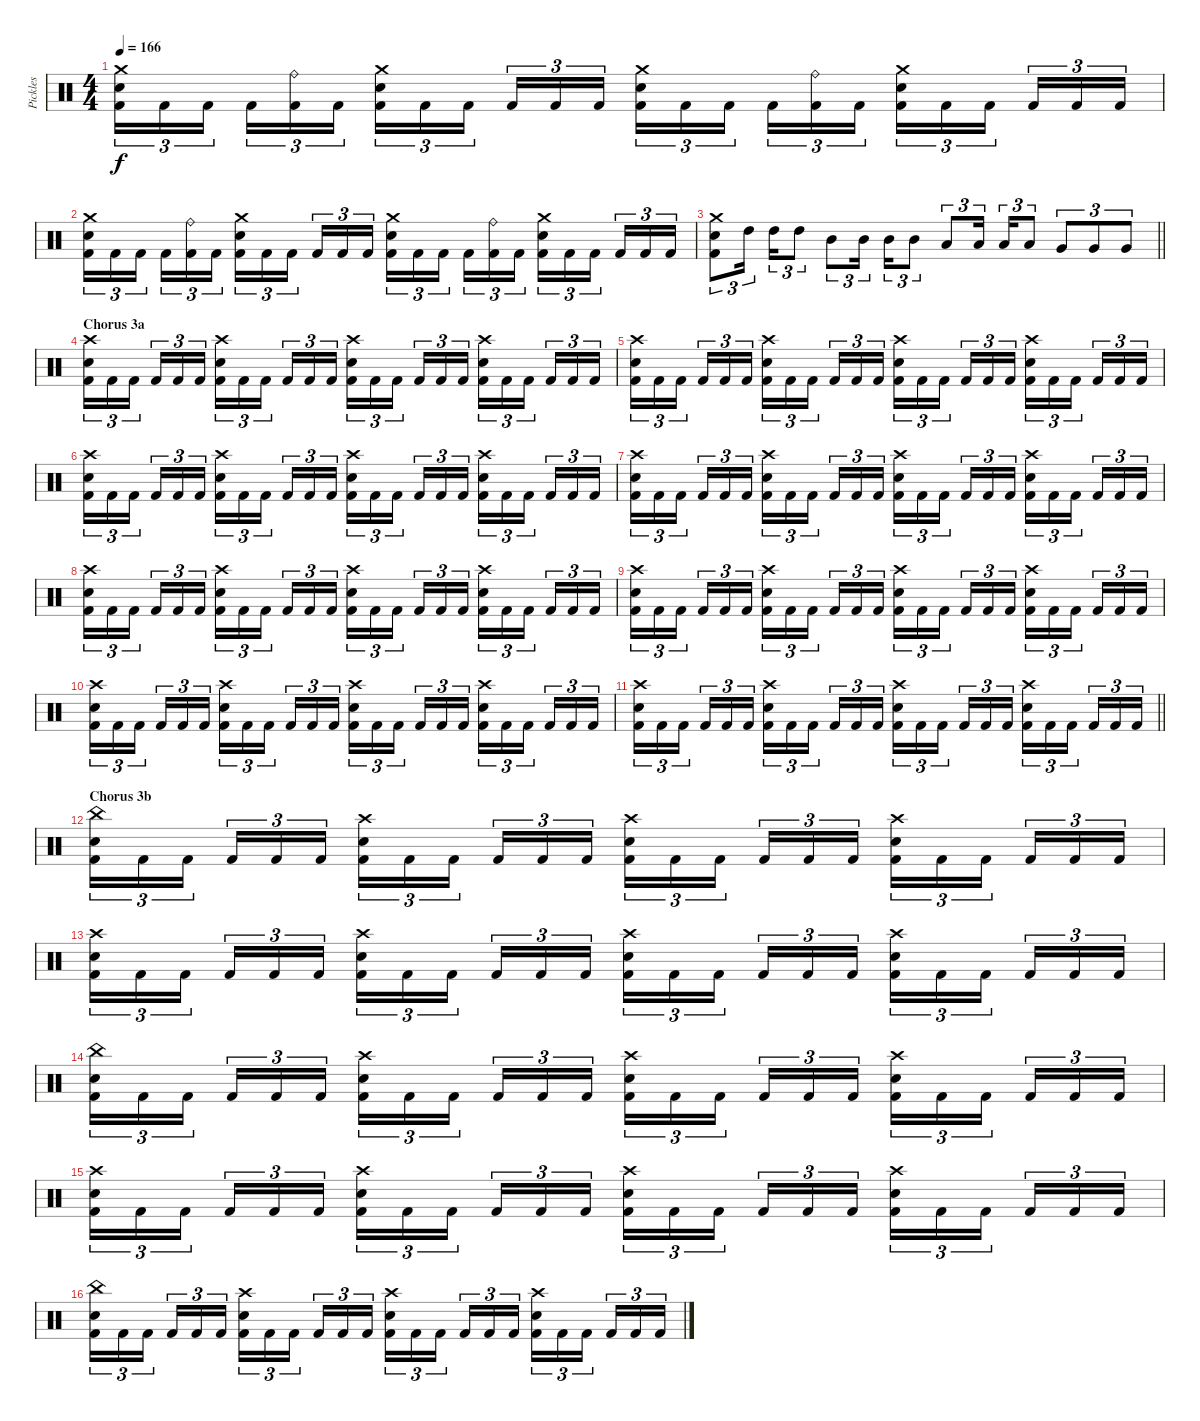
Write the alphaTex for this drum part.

\track ("Pickles" "Pickles") {instrument percussion}
\staff {score}
\articulation defaults
\ts (4 4)
\tempo 166
\clef neutral
\ks c
("Crash medium (hit)" "Snare (hit) 2" "Kick (hit) 2").16{tu (3 2) dy f} "Kick (hit) 2".16{tu (3 2)} "Kick (hit) 2".16{tu (3 2) beam splitsecondary} "Kick (hit) 2".16{tu (3 2)} ("Ride (bell)" "Kick (hit) 2").16{tu (3 2)} "Kick (hit) 2".16{tu (3 2)} ("Crash medium (hit)" "Snare (hit) 2" "Kick (hit) 2").16{tu (3 2)} "Kick (hit) 2".16{tu (3 2)} "Kick (hit) 2".16{tu (3 2) beam splitsecondary} "Kick (hit) 2".16{tu (3 2)} "Kick (hit) 2".16{tu (3 2)} "Kick (hit) 2".16{tu (3 2)} ("Crash medium (hit)" "Snare (hit) 2" "Kick (hit) 2").16{tu (3 2)} "Kick (hit) 2".16{tu (3 2)} "Kick (hit) 2".16{tu (3 2) beam splitsecondary} "Kick (hit) 2".16{tu (3 2)} ("Ride (bell)" "Kick (hit) 2").16{tu (3 2)} "Kick (hit) 2".16{tu (3 2)} ("Crash medium (hit)" "Snare (hit) 2" "Kick (hit) 2").16{tu (3 2)} "Kick (hit) 2".16{tu (3 2)} "Kick (hit) 2".16{tu (3 2) beam splitsecondary} "Kick (hit) 2".16{tu (3 2)} "Kick (hit) 2".16{tu (3 2)} "Kick (hit) 2".16{tu (3 2)} |
("Crash medium (hit)" "Snare (hit) 2" "Kick (hit) 2").16{tu (3 2)} "Kick (hit) 2".16{tu (3 2)} "Kick (hit) 2".16{tu (3 2) beam splitsecondary} "Kick (hit) 2".16{tu (3 2)} ("Ride (bell)" "Kick (hit) 2").16{tu (3 2)} "Kick (hit) 2".16{tu (3 2)} ("Crash medium (hit)" "Snare (hit) 2" "Kick (hit) 2").16{tu (3 2)} "Kick (hit) 2".16{tu (3 2)} "Kick (hit) 2".16{tu (3 2) beam splitsecondary} "Kick (hit) 2".16{tu (3 2)} "Kick (hit) 2".16{tu (3 2)} "Kick (hit) 2".16{tu (3 2)} ("Crash medium (hit)" "Snare (hit) 2" "Kick (hit) 2").16{tu (3 2)} "Kick (hit) 2".16{tu (3 2)} "Kick (hit) 2".16{tu (3 2) beam splitsecondary} "Kick (hit) 2".16{tu (3 2)} ("Ride (bell)" "Kick (hit) 2").16{tu (3 2)} "Kick (hit) 2".16{tu (3 2)} ("Crash medium (hit)" "Snare (hit) 2" "Kick (hit) 2").16{tu (3 2)} "Kick (hit) 2".16{tu (3 2)} "Kick (hit) 2".16{tu (3 2) beam splitsecondary} "Kick (hit) 2".16{tu (3 2)} "Kick (hit) 2".16{tu (3 2)} "Kick (hit) 2".16{tu (3 2)} |
\barLineRight lightlight
("Crash medium (hit)" "Snare (hit) 2" "Kick (hit) 2").8{tu (3 2)} "High Tom (hit)".16{tu (3 2) beam splitsecondary} "High Tom (hit)".16{tu (3 2)} "High Tom (hit)".8{tu (3 2)} "Mid Tom (hit)".8{tu (3 2)} "Mid Tom (hit)".16{tu (3 2) beam splitsecondary} "Mid Tom (hit)".16{tu (3 2)} "Mid Tom (hit)".8{tu (3 2)} "Low Tom (hit)".8{tu (3 2)} "Low Tom (hit)".16{tu (3 2) beam splitsecondary} "Low Tom (hit)".16{tu (3 2)} "Low Tom (hit)".8{tu (3 2)} "Very Low Tom (hit)".8{tu (3 2)} "Very Low Tom (hit)".8{tu (3 2)} "Very Low Tom (hit)".8{tu (3 2)} |
\section ("" "Chorus 3a")
("Crash high (hit)" "Snare (hit) 2" "Kick (hit) 2").16{tu (3 2)} "Kick (hit) 2".16{tu (3 2)} "Kick (hit) 2".16{tu (3 2) beam splitsecondary} "Kick (hit) 2".16{tu (3 2)} "Kick (hit) 2".16{tu (3 2)} "Kick (hit) 2".16{tu (3 2)} ("Crash high (hit)" "Snare (hit) 2" "Kick (hit) 2").16{tu (3 2)} "Kick (hit) 2".16{tu (3 2)} "Kick (hit) 2".16{tu (3 2) beam splitsecondary} "Kick (hit) 2".16{tu (3 2)} "Kick (hit) 2".16{tu (3 2)} "Kick (hit) 2".16{tu (3 2)} ("Crash high (hit)" "Snare (hit) 2" "Kick (hit) 2").16{tu (3 2)} "Kick (hit) 2".16{tu (3 2)} "Kick (hit) 2".16{tu (3 2) beam splitsecondary} "Kick (hit) 2".16{tu (3 2)} "Kick (hit) 2".16{tu (3 2)} "Kick (hit) 2".16{tu (3 2)} ("Crash high (hit)" "Snare (hit) 2" "Kick (hit) 2").16{tu (3 2)} "Kick (hit) 2".16{tu (3 2)} "Kick (hit) 2".16{tu (3 2) beam splitsecondary} "Kick (hit) 2".16{tu (3 2)} "Kick (hit) 2".16{tu (3 2)} "Kick (hit) 2".16{tu (3 2)} |
("Crash high (hit)" "Snare (hit) 2" "Kick (hit) 2").16{tu (3 2)} "Kick (hit) 2".16{tu (3 2)} "Kick (hit) 2".16{tu (3 2) beam splitsecondary} "Kick (hit) 2".16{tu (3 2)} "Kick (hit) 2".16{tu (3 2)} "Kick (hit) 2".16{tu (3 2)} ("Crash high (hit)" "Snare (hit) 2" "Kick (hit) 2").16{tu (3 2)} "Kick (hit) 2".16{tu (3 2)} "Kick (hit) 2".16{tu (3 2) beam splitsecondary} "Kick (hit) 2".16{tu (3 2)} "Kick (hit) 2".16{tu (3 2)} "Kick (hit) 2".16{tu (3 2)} ("Crash high (hit)" "Snare (hit) 2" "Kick (hit) 2").16{tu (3 2)} "Kick (hit) 2".16{tu (3 2)} "Kick (hit) 2".16{tu (3 2) beam splitsecondary} "Kick (hit) 2".16{tu (3 2)} "Kick (hit) 2".16{tu (3 2)} "Kick (hit) 2".16{tu (3 2)} ("Crash high (hit)" "Snare (hit) 2" "Kick (hit) 2").16{tu (3 2)} "Kick (hit) 2".16{tu (3 2)} "Kick (hit) 2".16{tu (3 2) beam splitsecondary} "Kick (hit) 2".16{tu (3 2)} "Kick (hit) 2".16{tu (3 2)} "Kick (hit) 2".16{tu (3 2)} |
("Crash high (hit)" "Snare (hit) 2" "Kick (hit) 2").16{tu (3 2)} "Kick (hit) 2".16{tu (3 2)} "Kick (hit) 2".16{tu (3 2) beam splitsecondary} "Kick (hit) 2".16{tu (3 2)} "Kick (hit) 2".16{tu (3 2)} "Kick (hit) 2".16{tu (3 2)} ("Crash high (hit)" "Snare (hit) 2" "Kick (hit) 2").16{tu (3 2)} "Kick (hit) 2".16{tu (3 2)} "Kick (hit) 2".16{tu (3 2) beam splitsecondary} "Kick (hit) 2".16{tu (3 2)} "Kick (hit) 2".16{tu (3 2)} "Kick (hit) 2".16{tu (3 2)} ("Crash high (hit)" "Snare (hit) 2" "Kick (hit) 2").16{tu (3 2)} "Kick (hit) 2".16{tu (3 2)} "Kick (hit) 2".16{tu (3 2) beam splitsecondary} "Kick (hit) 2".16{tu (3 2)} "Kick (hit) 2".16{tu (3 2)} "Kick (hit) 2".16{tu (3 2)} ("Crash high (hit)" "Snare (hit) 2" "Kick (hit) 2").16{tu (3 2)} "Kick (hit) 2".16{tu (3 2)} "Kick (hit) 2".16{tu (3 2) beam splitsecondary} "Kick (hit) 2".16{tu (3 2)} "Kick (hit) 2".16{tu (3 2)} "Kick (hit) 2".16{tu (3 2)} |
("Crash high (hit)" "Snare (hit) 2" "Kick (hit) 2").16{tu (3 2)} "Kick (hit) 2".16{tu (3 2)} "Kick (hit) 2".16{tu (3 2) beam splitsecondary} "Kick (hit) 2".16{tu (3 2)} "Kick (hit) 2".16{tu (3 2)} "Kick (hit) 2".16{tu (3 2)} ("Crash high (hit)" "Snare (hit) 2" "Kick (hit) 2").16{tu (3 2)} "Kick (hit) 2".16{tu (3 2)} "Kick (hit) 2".16{tu (3 2) beam splitsecondary} "Kick (hit) 2".16{tu (3 2)} "Kick (hit) 2".16{tu (3 2)} "Kick (hit) 2".16{tu (3 2)} ("Crash high (hit)" "Snare (hit) 2" "Kick (hit) 2").16{tu (3 2)} "Kick (hit) 2".16{tu (3 2)} "Kick (hit) 2".16{tu (3 2) beam splitsecondary} "Kick (hit) 2".16{tu (3 2)} "Kick (hit) 2".16{tu (3 2)} "Kick (hit) 2".16{tu (3 2)} ("Crash high (hit)" "Snare (hit) 2" "Kick (hit) 2").16{tu (3 2)} "Kick (hit) 2".16{tu (3 2)} "Kick (hit) 2".16{tu (3 2) beam splitsecondary} "Kick (hit) 2".16{tu (3 2)} "Kick (hit) 2".16{tu (3 2)} "Kick (hit) 2".16{tu (3 2)} |
("Crash high (hit)" "Snare (hit) 2" "Kick (hit) 2").16{tu (3 2)} "Kick (hit) 2".16{tu (3 2)} "Kick (hit) 2".16{tu (3 2) beam splitsecondary} "Kick (hit) 2".16{tu (3 2)} "Kick (hit) 2".16{tu (3 2)} "Kick (hit) 2".16{tu (3 2)} ("Crash high (hit)" "Snare (hit) 2" "Kick (hit) 2").16{tu (3 2)} "Kick (hit) 2".16{tu (3 2)} "Kick (hit) 2".16{tu (3 2) beam splitsecondary} "Kick (hit) 2".16{tu (3 2)} "Kick (hit) 2".16{tu (3 2)} "Kick (hit) 2".16{tu (3 2)} ("Crash high (hit)" "Snare (hit) 2" "Kick (hit) 2").16{tu (3 2)} "Kick (hit) 2".16{tu (3 2)} "Kick (hit) 2".16{tu (3 2) beam splitsecondary} "Kick (hit) 2".16{tu (3 2)} "Kick (hit) 2".16{tu (3 2)} "Kick (hit) 2".16{tu (3 2)} ("Crash high (hit)" "Snare (hit) 2" "Kick (hit) 2").16{tu (3 2)} "Kick (hit) 2".16{tu (3 2)} "Kick (hit) 2".16{tu (3 2) beam splitsecondary} "Kick (hit) 2".16{tu (3 2)} "Kick (hit) 2".16{tu (3 2)} "Kick (hit) 2".16{tu (3 2)} |
("Crash high (hit)" "Snare (hit) 2" "Kick (hit) 2").16{tu (3 2)} "Kick (hit) 2".16{tu (3 2)} "Kick (hit) 2".16{tu (3 2) beam splitsecondary} "Kick (hit) 2".16{tu (3 2)} "Kick (hit) 2".16{tu (3 2)} "Kick (hit) 2".16{tu (3 2)} ("Crash high (hit)" "Snare (hit) 2" "Kick (hit) 2").16{tu (3 2)} "Kick (hit) 2".16{tu (3 2)} "Kick (hit) 2".16{tu (3 2) beam splitsecondary} "Kick (hit) 2".16{tu (3 2)} "Kick (hit) 2".16{tu (3 2)} "Kick (hit) 2".16{tu (3 2)} ("Crash high (hit)" "Snare (hit) 2" "Kick (hit) 2").16{tu (3 2)} "Kick (hit) 2".16{tu (3 2)} "Kick (hit) 2".16{tu (3 2) beam splitsecondary} "Kick (hit) 2".16{tu (3 2)} "Kick (hit) 2".16{tu (3 2)} "Kick (hit) 2".16{tu (3 2)} ("Crash high (hit)" "Snare (hit) 2" "Kick (hit) 2").16{tu (3 2)} "Kick (hit) 2".16{tu (3 2)} "Kick (hit) 2".16{tu (3 2) beam splitsecondary} "Kick (hit) 2".16{tu (3 2)} "Kick (hit) 2".16{tu (3 2)} "Kick (hit) 2".16{tu (3 2)} |
("Crash high (hit)" "Snare (hit) 2" "Kick (hit) 2").16{tu (3 2)} "Kick (hit) 2".16{tu (3 2)} "Kick (hit) 2".16{tu (3 2) beam splitsecondary} "Kick (hit) 2".16{tu (3 2)} "Kick (hit) 2".16{tu (3 2)} "Kick (hit) 2".16{tu (3 2)} ("Crash high (hit)" "Snare (hit) 2" "Kick (hit) 2").16{tu (3 2)} "Kick (hit) 2".16{tu (3 2)} "Kick (hit) 2".16{tu (3 2) beam splitsecondary} "Kick (hit) 2".16{tu (3 2)} "Kick (hit) 2".16{tu (3 2)} "Kick (hit) 2".16{tu (3 2)} ("Crash high (hit)" "Snare (hit) 2" "Kick (hit) 2").16{tu (3 2)} "Kick (hit) 2".16{tu (3 2)} "Kick (hit) 2".16{tu (3 2) beam splitsecondary} "Kick (hit) 2".16{tu (3 2)} "Kick (hit) 2".16{tu (3 2)} "Kick (hit) 2".16{tu (3 2)} ("Crash high (hit)" "Snare (hit) 2" "Kick (hit) 2").16{tu (3 2)} "Kick (hit) 2".16{tu (3 2)} "Kick (hit) 2".16{tu (3 2) beam splitsecondary} "Kick (hit) 2".16{tu (3 2)} "Kick (hit) 2".16{tu (3 2)} "Kick (hit) 2".16{tu (3 2)} |
\barLineRight lightlight
("Crash high (hit)" "Snare (hit) 2" "Kick (hit) 2").16{tu (3 2)} "Kick (hit) 2".16{tu (3 2)} "Kick (hit) 2".16{tu (3 2) beam splitsecondary} "Kick (hit) 2".16{tu (3 2)} "Kick (hit) 2".16{tu (3 2)} "Kick (hit) 2".16{tu (3 2)} ("Crash high (hit)" "Snare (hit) 2" "Kick (hit) 2").16{tu (3 2)} "Kick (hit) 2".16{tu (3 2)} "Kick (hit) 2".16{tu (3 2) beam splitsecondary} "Kick (hit) 2".16{tu (3 2)} "Kick (hit) 2".16{tu (3 2)} "Kick (hit) 2".16{tu (3 2)} ("Crash high (hit)" "Snare (hit) 2" "Kick (hit) 2").16{tu (3 2)} "Kick (hit) 2".16{tu (3 2)} "Kick (hit) 2".16{tu (3 2) beam splitsecondary} "Kick (hit) 2".16{tu (3 2)} "Kick (hit) 2".16{tu (3 2)} "Kick (hit) 2".16{tu (3 2)} ("Crash high (hit)" "Snare (hit) 2" "Kick (hit) 2").16{tu (3 2)} "Kick (hit) 2".16{tu (3 2)} "Kick (hit) 2".16{tu (3 2) beam splitsecondary} "Kick (hit) 2".16{tu (3 2)} "Kick (hit) 2".16{tu (3 2)} "Kick (hit) 2".16{tu (3 2)} |
\section ("" "Chorus 3b")
("China (hit)" "Snare (hit) 2" "Kick (hit) 2").16{tu (3 2)} "Kick (hit) 2".16{tu (3 2)} "Kick (hit) 2".16{tu (3 2) beam splitsecondary} "Kick (hit) 2".16{tu (3 2)} "Kick (hit) 2".16{tu (3 2)} "Kick (hit) 2".16{tu (3 2)} ("Crash high (hit)" "Snare (hit) 2" "Kick (hit) 2").16{tu (3 2)} "Kick (hit) 2".16{tu (3 2)} "Kick (hit) 2".16{tu (3 2) beam splitsecondary} "Kick (hit) 2".16{tu (3 2)} "Kick (hit) 2".16{tu (3 2)} "Kick (hit) 2".16{tu (3 2)} ("Crash high (hit)" "Snare (hit) 2" "Kick (hit) 2").16{tu (3 2)} "Kick (hit) 2".16{tu (3 2)} "Kick (hit) 2".16{tu (3 2) beam splitsecondary} "Kick (hit) 2".16{tu (3 2)} "Kick (hit) 2".16{tu (3 2)} "Kick (hit) 2".16{tu (3 2)} ("Crash high (hit)" "Snare (hit) 2" "Kick (hit) 2").16{tu (3 2)} "Kick (hit) 2".16{tu (3 2)} "Kick (hit) 2".16{tu (3 2) beam splitsecondary} "Kick (hit) 2".16{tu (3 2)} "Kick (hit) 2".16{tu (3 2)} "Kick (hit) 2".16{tu (3 2)} |
("Crash high (hit)" "Snare (hit) 2" "Kick (hit) 2").16{tu (3 2)} "Kick (hit) 2".16{tu (3 2)} "Kick (hit) 2".16{tu (3 2) beam splitsecondary} "Kick (hit) 2".16{tu (3 2)} "Kick (hit) 2".16{tu (3 2)} "Kick (hit) 2".16{tu (3 2)} ("Crash high (hit)" "Snare (hit) 2" "Kick (hit) 2").16{tu (3 2)} "Kick (hit) 2".16{tu (3 2)} "Kick (hit) 2".16{tu (3 2) beam splitsecondary} "Kick (hit) 2".16{tu (3 2)} "Kick (hit) 2".16{tu (3 2)} "Kick (hit) 2".16{tu (3 2)} ("Crash high (hit)" "Snare (hit) 2" "Kick (hit) 2").16{tu (3 2)} "Kick (hit) 2".16{tu (3 2)} "Kick (hit) 2".16{tu (3 2) beam splitsecondary} "Kick (hit) 2".16{tu (3 2)} "Kick (hit) 2".16{tu (3 2)} "Kick (hit) 2".16{tu (3 2)} ("Crash high (hit)" "Snare (hit) 2" "Kick (hit) 2").16{tu (3 2)} "Kick (hit) 2".16{tu (3 2)} "Kick (hit) 2".16{tu (3 2) beam splitsecondary} "Kick (hit) 2".16{tu (3 2)} "Kick (hit) 2".16{tu (3 2)} "Kick (hit) 2".16{tu (3 2)} |
("China (hit)" "Snare (hit) 2" "Kick (hit) 2").16{tu (3 2)} "Kick (hit) 2".16{tu (3 2)} "Kick (hit) 2".16{tu (3 2) beam splitsecondary} "Kick (hit) 2".16{tu (3 2)} "Kick (hit) 2".16{tu (3 2)} "Kick (hit) 2".16{tu (3 2)} ("Crash high (hit)" "Snare (hit) 2" "Kick (hit) 2").16{tu (3 2)} "Kick (hit) 2".16{tu (3 2)} "Kick (hit) 2".16{tu (3 2) beam splitsecondary} "Kick (hit) 2".16{tu (3 2)} "Kick (hit) 2".16{tu (3 2)} "Kick (hit) 2".16{tu (3 2)} ("Crash high (hit)" "Snare (hit) 2" "Kick (hit) 2").16{tu (3 2)} "Kick (hit) 2".16{tu (3 2)} "Kick (hit) 2".16{tu (3 2) beam splitsecondary} "Kick (hit) 2".16{tu (3 2)} "Kick (hit) 2".16{tu (3 2)} "Kick (hit) 2".16{tu (3 2)} ("Crash high (hit)" "Snare (hit) 2" "Kick (hit) 2").16{tu (3 2)} "Kick (hit) 2".16{tu (3 2)} "Kick (hit) 2".16{tu (3 2) beam splitsecondary} "Kick (hit) 2".16{tu (3 2)} "Kick (hit) 2".16{tu (3 2)} "Kick (hit) 2".16{tu (3 2)} |
("Crash high (hit)" "Snare (hit) 2" "Kick (hit) 2").16{tu (3 2)} "Kick (hit) 2".16{tu (3 2)} "Kick (hit) 2".16{tu (3 2) beam splitsecondary} "Kick (hit) 2".16{tu (3 2)} "Kick (hit) 2".16{tu (3 2)} "Kick (hit) 2".16{tu (3 2)} ("Crash high (hit)" "Snare (hit) 2" "Kick (hit) 2").16{tu (3 2)} "Kick (hit) 2".16{tu (3 2)} "Kick (hit) 2".16{tu (3 2) beam splitsecondary} "Kick (hit) 2".16{tu (3 2)} "Kick (hit) 2".16{tu (3 2)} "Kick (hit) 2".16{tu (3 2)} ("Crash high (hit)" "Snare (hit) 2" "Kick (hit) 2").16{tu (3 2)} "Kick (hit) 2".16{tu (3 2)} "Kick (hit) 2".16{tu (3 2) beam splitsecondary} "Kick (hit) 2".16{tu (3 2)} "Kick (hit) 2".16{tu (3 2)} "Kick (hit) 2".16{tu (3 2)} ("Crash high (hit)" "Snare (hit) 2" "Kick (hit) 2").16{tu (3 2)} "Kick (hit) 2".16{tu (3 2)} "Kick (hit) 2".16{tu (3 2) beam splitsecondary} "Kick (hit) 2".16{tu (3 2)} "Kick (hit) 2".16{tu (3 2)} "Kick (hit) 2".16{tu (3 2)} |
("China (hit)" "Snare (hit) 2" "Kick (hit) 2").16{tu (3 2)} "Kick (hit) 2".16{tu (3 2)} "Kick (hit) 2".16{tu (3 2) beam splitsecondary} "Kick (hit) 2".16{tu (3 2)} "Kick (hit) 2".16{tu (3 2)} "Kick (hit) 2".16{tu (3 2)} ("Crash high (hit)" "Snare (hit) 2" "Kick (hit) 2").16{tu (3 2)} "Kick (hit) 2".16{tu (3 2)} "Kick (hit) 2".16{tu (3 2) beam splitsecondary} "Kick (hit) 2".16{tu (3 2)} "Kick (hit) 2".16{tu (3 2)} "Kick (hit) 2".16{tu (3 2)} ("Crash high (hit)" "Snare (hit) 2" "Kick (hit) 2").16{tu (3 2)} "Kick (hit) 2".16{tu (3 2)} "Kick (hit) 2".16{tu (3 2) beam splitsecondary} "Kick (hit) 2".16{tu (3 2)} "Kick (hit) 2".16{tu (3 2)} "Kick (hit) 2".16{tu (3 2)} ("Crash high (hit)" "Snare (hit) 2" "Kick (hit) 2").16{tu (3 2)} "Kick (hit) 2".16{tu (3 2)} "Kick (hit) 2".16{tu (3 2) beam splitsecondary} "Kick (hit) 2".16{tu (3 2)} "Kick (hit) 2".16{tu (3 2)} "Kick (hit) 2".16{tu (3 2)}
